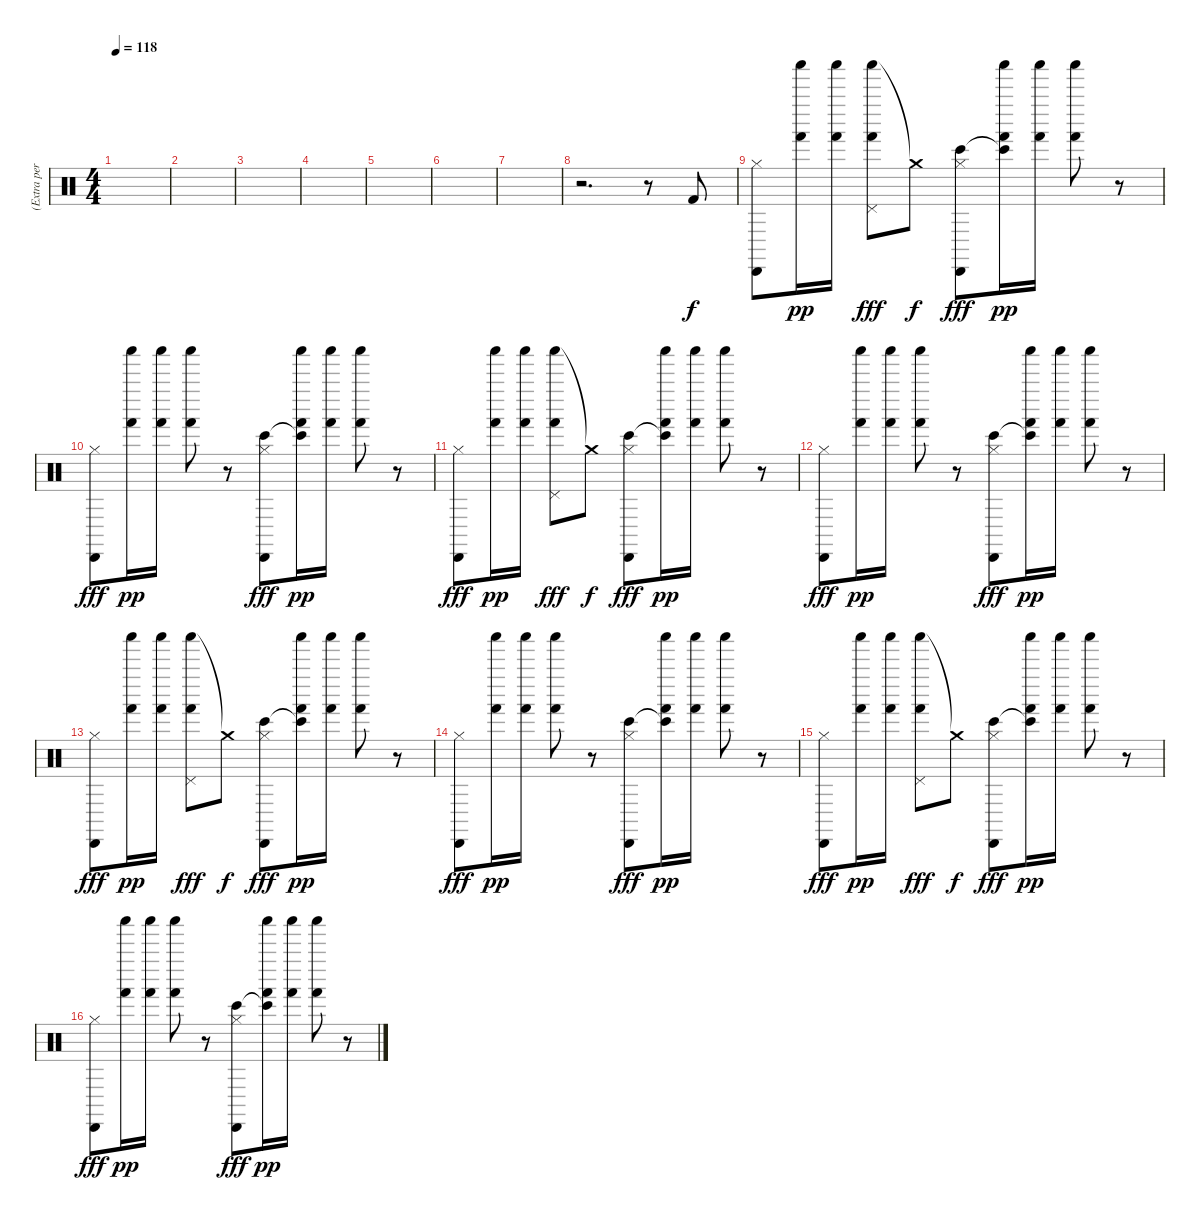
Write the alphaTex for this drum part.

\track ("(Extra percussion)Eddie Fisher" "(Extra per") {instrument percussion}
\staff {score}
\articulation defaults
\ts (4 4)
\tempo 118
\clef neutral
\ks c
|
|
|
|
|
|
|
r.2{d} r.8 "Kick (hit) 2".8 |
("Cabasa (hit)" "Hi-Hat (closed)").8 ("Shaker (hit)" "Hand (hit)").16{dy pp} ("Shaker (hit)" "Hand (hit)").16 ("Shaker (hit)" "Hand (hit)" "Pedal Hi-Hat (hit)").8{dy fff} "Crash medium (hit)"{t}.8{dy f} ("Cabasa (hit)" "Hi-Hat (closed)" "Bongo High (hit)").8{dy fff} ("Shaker (hit)" "Hand (hit)" "Bongo High (hit)"{t}).16{dy pp} ("Shaker (hit)" "Hand (hit)").16 ("Shaker (hit)" "Hand (hit)").8 r.8 |
("Cabasa (hit)" "Hi-Hat (closed)").8{dy fff} ("Shaker (hit)" "Hand (hit)").16{dy pp} ("Shaker (hit)" "Hand (hit)").16 ("Shaker (hit)" "Hand (hit)").8 r.8 ("Cabasa (hit)" "Hi-Hat (closed)" "Bongo High (hit)").8{dy fff} ("Shaker (hit)" "Hand (hit)" "Bongo High (hit)"{t}).16{dy pp} ("Shaker (hit)" "Hand (hit)").16 ("Shaker (hit)" "Hand (hit)").8 r.8 |
("Cabasa (hit)" "Hi-Hat (closed)").8{dy fff} ("Shaker (hit)" "Hand (hit)").16{dy pp} ("Shaker (hit)" "Hand (hit)").16 ("Shaker (hit)" "Hand (hit)" "Pedal Hi-Hat (hit)").8{dy fff} "Crash medium (hit)"{t}.8{dy f} ("Cabasa (hit)" "Hi-Hat (closed)" "Bongo High (hit)").8{dy fff} ("Shaker (hit)" "Hand (hit)" "Bongo High (hit)"{t}).16{dy pp} ("Shaker (hit)" "Hand (hit)").16 ("Shaker (hit)" "Hand (hit)").8 r.8 |
("Cabasa (hit)" "Hi-Hat (closed)").8{dy fff} ("Shaker (hit)" "Hand (hit)").16{dy pp} ("Shaker (hit)" "Hand (hit)").16 ("Shaker (hit)" "Hand (hit)").8 r.8 ("Cabasa (hit)" "Hi-Hat (closed)" "Bongo High (hit)").8{dy fff} ("Shaker (hit)" "Hand (hit)" "Bongo High (hit)"{t}).16{dy pp} ("Shaker (hit)" "Hand (hit)").16 ("Shaker (hit)" "Hand (hit)").8 r.8 |
("Cabasa (hit)" "Hi-Hat (closed)").8{dy fff} ("Shaker (hit)" "Hand (hit)").16{dy pp} ("Shaker (hit)" "Hand (hit)").16 ("Shaker (hit)" "Hand (hit)" "Pedal Hi-Hat (hit)").8{dy fff} "Crash medium (hit)"{t}.8{dy f} ("Cabasa (hit)" "Hi-Hat (closed)" "Bongo High (hit)").8{dy fff} ("Shaker (hit)" "Hand (hit)" "Bongo High (hit)"{t}).16{dy pp} ("Shaker (hit)" "Hand (hit)").16 ("Shaker (hit)" "Hand (hit)").8 r.8 |
("Cabasa (hit)" "Hi-Hat (closed)").8{dy fff} ("Shaker (hit)" "Hand (hit)").16{dy pp} ("Shaker (hit)" "Hand (hit)").16 ("Shaker (hit)" "Hand (hit)").8 r.8 ("Cabasa (hit)" "Hi-Hat (closed)" "Bongo High (hit)").8{dy fff} ("Shaker (hit)" "Hand (hit)" "Bongo High (hit)"{t}).16{dy pp} ("Shaker (hit)" "Hand (hit)").16 ("Shaker (hit)" "Hand (hit)").8 r.8 |
("Cabasa (hit)" "Hi-Hat (closed)").8{dy fff} ("Shaker (hit)" "Hand (hit)").16{dy pp} ("Shaker (hit)" "Hand (hit)").16 ("Shaker (hit)" "Hand (hit)" "Pedal Hi-Hat (hit)").8{dy fff} "Crash medium (hit)"{t}.8{dy f} ("Cabasa (hit)" "Hi-Hat (closed)" "Bongo High (hit)").8{dy fff} ("Shaker (hit)" "Hand (hit)" "Bongo High (hit)"{t}).16{dy pp} ("Shaker (hit)" "Hand (hit)").16 ("Shaker (hit)" "Hand (hit)").8 r.8 |
("Cabasa (hit)" "Hi-Hat (closed)").8{dy fff} ("Shaker (hit)" "Hand (hit)").16{dy pp} ("Shaker (hit)" "Hand (hit)").16 ("Shaker (hit)" "Hand (hit)").8 r.8 ("Cabasa (hit)" "Hi-Hat (closed)" "Bongo High (hit)").8{dy fff} ("Shaker (hit)" "Hand (hit)" "Bongo High (hit)"{t}).16{dy pp} ("Shaker (hit)" "Hand (hit)").16 ("Shaker (hit)" "Hand (hit)").8 r.8
